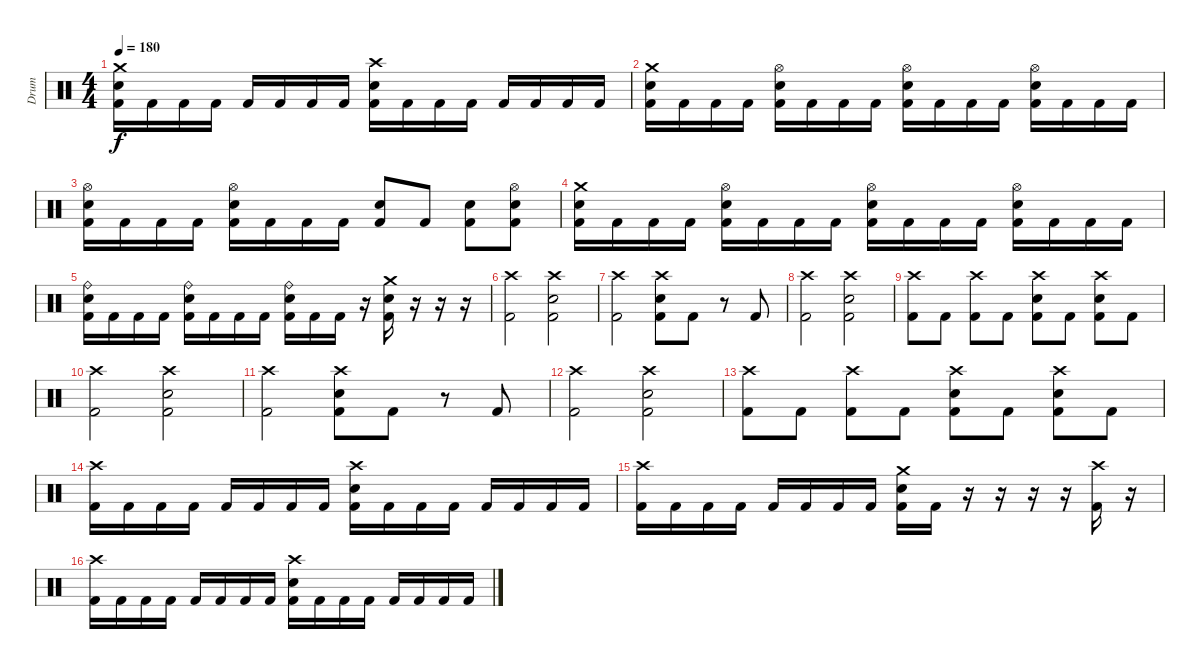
\track ("Drum" "Drum") {instrument percussion}
\staff {score}
\articulation defaults
\ts (4 4)
\tempo 180
\clef neutral
\ks c
("Crash medium (hit)" "Electric Snare (hit)" "Kick (hit) 2").16{dy f} "Kick (hit) 2".16 "Kick (hit) 2".16 "Kick (hit) 2".16 "Kick (hit) 2".16 "Kick (hit) 2".16 "Kick (hit) 2".16 "Kick (hit) 2".16 ("Crash high (hit)" "Electric Snare (hit)" "Kick (hit) 2").16 "Kick (hit) 2".16 "Kick (hit) 2".16 "Kick (hit) 2".16 "Kick (hit) 2".16 "Kick (hit) 2".16 "Kick (hit) 2".16 "Kick (hit) 2".16 |
("Crash medium (hit)" "Electric Snare (hit)" "Kick (hit) 2").16 "Kick (hit) 2".16 "Kick (hit) 2".16 "Kick (hit) 2".16 ("Hi-Hat (open)" "Electric Snare (hit)" "Kick (hit) 2").16 "Kick (hit) 2".16 "Kick (hit) 2".16 "Kick (hit) 2".16 ("Hi-Hat (open)" "Electric Snare (hit)" "Kick (hit) 2").16 "Kick (hit) 2".16 "Kick (hit) 2".16 "Kick (hit) 2".16 ("Hi-Hat (open)" "Electric Snare (hit)" "Kick (hit) 2").16 "Kick (hit) 2".16 "Kick (hit) 2".16 "Kick (hit) 2".16 |
("Hi-Hat (open)" "Electric Snare (hit)" "Kick (hit) 2").16 "Kick (hit) 2".16 "Kick (hit) 2".16 "Kick (hit) 2".16 ("Hi-Hat (open)" "Electric Snare (hit)" "Kick (hit) 2").16 "Kick (hit) 2".16 "Kick (hit) 2".16 "Kick (hit) 2".16 ("Electric Snare (hit)" "Kick (hit) 2").8 "Kick (hit) 2".8 ("Electric Snare (hit)" "Kick (hit) 2").8 ("Hi-Hat (open)" "Electric Snare (hit)" "Kick (hit) 2").8 |
("Crash medium (hit)" "Electric Snare (hit)" "Kick (hit) 2").16 "Kick (hit) 2".16 "Kick (hit) 2".16 "Kick (hit) 2".16 ("Hi-Hat (open)" "Electric Snare (hit)" "Kick (hit) 2").16 "Kick (hit) 2".16 "Kick (hit) 2".16 "Kick (hit) 2".16 ("Hi-Hat (open)" "Electric Snare (hit)" "Kick (hit) 2").16 "Kick (hit) 2".16 "Kick (hit) 2".16 "Kick (hit) 2".16 ("Hi-Hat (open)" "Electric Snare (hit)" "Kick (hit) 2").16 "Kick (hit) 2".16 "Kick (hit) 2".16 "Kick (hit) 2".16 |
("Ride (bell)" "Electric Snare (hit)" "Kick (hit) 2").16 "Kick (hit) 2".16 "Kick (hit) 2".16 "Kick (hit) 2".16 ("Ride (bell)" "Electric Snare (hit)" "Kick (hit) 2").16 "Kick (hit) 2".16 "Kick (hit) 2".16 "Kick (hit) 2".16 ("Ride (bell)" "Electric Snare (hit)" "Kick (hit) 2").16 "Kick (hit) 2".16 "Kick (hit) 2".16 r.16 ("Crash medium (hit)" "Electric Snare (hit)" "Kick (hit) 2").16 r.16 r.16 r.16 |
("Crash high (hit)" "Kick (hit) 2").2 ("Crash high (hit)" "Electric Snare (hit)" "Kick (hit) 2").2 |
("Crash high (hit)" "Kick (hit) 2").2 ("Crash high (hit)" "Electric Snare (hit)" "Kick (hit) 2").8 "Kick (hit) 2".8 r.8 "Kick (hit) 2".8 |
("Crash high (hit)" "Kick (hit) 2").2 ("Crash high (hit)" "Electric Snare (hit)" "Kick (hit) 2").2 |
("Crash high (hit)" "Kick (hit) 2").8 "Kick (hit) 2".8 ("Crash high (hit)" "Kick (hit) 2").8 "Kick (hit) 2".8 ("Crash high (hit)" "Electric Snare (hit)" "Kick (hit) 2").8 "Kick (hit) 2".8 ("Crash high (hit)" "Electric Snare (hit)" "Kick (hit) 2").8 "Kick (hit) 2".8 |
("Crash high (hit)" "Kick (hit) 2").2 ("Crash high (hit)" "Electric Snare (hit)" "Kick (hit) 2").2 |
("Crash high (hit)" "Kick (hit) 2").2 ("Crash high (hit)" "Electric Snare (hit)" "Kick (hit) 2").8 "Kick (hit) 2".8 r.8 "Kick (hit) 2".8 |
("Crash high (hit)" "Kick (hit) 2").2 ("Crash high (hit)" "Electric Snare (hit)" "Kick (hit) 2").2 |
("Crash high (hit)" "Kick (hit) 2").8 "Kick (hit) 2".8 ("Crash high (hit)" "Kick (hit) 2").8 "Kick (hit) 2".8 ("Crash high (hit)" "Electric Snare (hit)" "Kick (hit) 2").8 "Kick (hit) 2".8 ("Crash high (hit)" "Electric Snare (hit)" "Kick (hit) 2").8 "Kick (hit) 2".8 |
("Crash high (hit)" "Kick (hit) 2").16 "Kick (hit) 2".16 "Kick (hit) 2".16 "Kick (hit) 2".16 "Kick (hit) 2".16 "Kick (hit) 2".16 "Kick (hit) 2".16 "Kick (hit) 2".16 ("Crash high (hit)" "Electric Snare (hit)" "Kick (hit) 2").16 "Kick (hit) 2".16 "Kick (hit) 2".16 "Kick (hit) 2".16 "Kick (hit) 2".16 "Kick (hit) 2".16 "Kick (hit) 2".16 "Kick (hit) 2".16 |
("Crash high (hit)" "Kick (hit) 2").16 "Kick (hit) 2".16 "Kick (hit) 2".16 "Kick (hit) 2".16 "Kick (hit) 2".16 "Kick (hit) 2".16 "Kick (hit) 2".16 "Kick (hit) 2".16 ("Crash medium (hit)" "Electric Snare (hit)" "Kick (hit) 2").16 "Kick (hit) 2".16 r.16 r.16 r.16 r.16 ("Crash high (hit)" "Kick (hit) 2").16 r.16 |
("Crash high (hit)" "Kick (hit) 2").16 "Kick (hit) 2".16 "Kick (hit) 2".16 "Kick (hit) 2".16 "Kick (hit) 2".16 "Kick (hit) 2".16 "Kick (hit) 2".16 "Kick (hit) 2".16 ("Crash high (hit)" "Electric Snare (hit)" "Kick (hit) 2").16 "Kick (hit) 2".16 "Kick (hit) 2".16 "Kick (hit) 2".16 "Kick (hit) 2".16 "Kick (hit) 2".16 "Kick (hit) 2".16 "Kick (hit) 2".16
